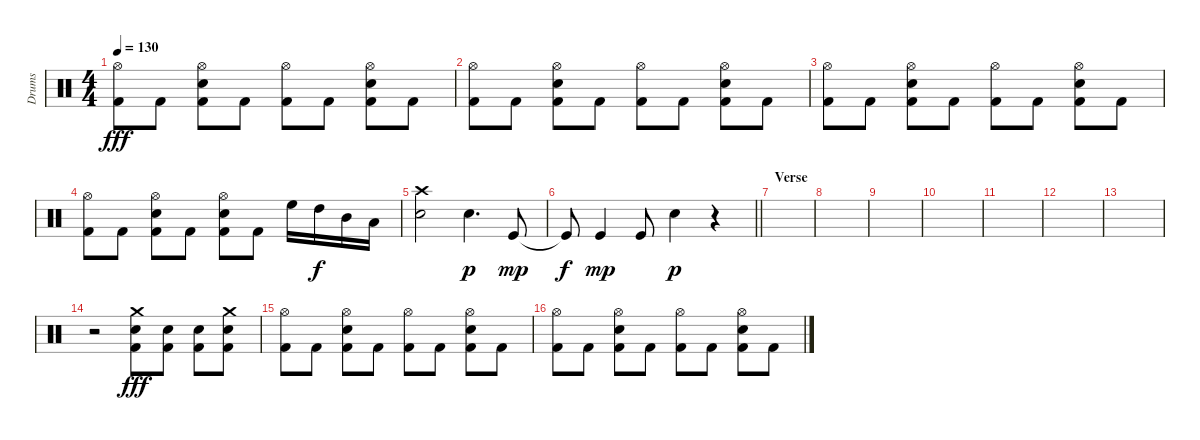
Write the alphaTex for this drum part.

\track ("Drums" "Drums") {instrument percussion}
\staff {score}
\articulation defaults
\ts (4 4)
\tempo 130
\clef neutral
\ks c
("Hi-Hat (open)" "Kick (hit) 2").8{dy fff} "Kick (hit) 2".8 ("Hi-Hat (open)" "Snare (hit) 2" "Kick (hit) 2").8 "Kick (hit) 2".8 ("Hi-Hat (open)" "Kick (hit) 2").8 "Kick (hit) 2".8 ("Hi-Hat (open)" "Snare (hit) 2" "Kick (hit) 2").8 "Kick (hit) 2".8 |
("Hi-Hat (open)" "Kick (hit) 2").8 "Kick (hit) 2".8 ("Hi-Hat (open)" "Snare (hit) 2" "Kick (hit) 2").8 "Kick (hit) 2".8 ("Hi-Hat (open)" "Kick (hit) 2").8 "Kick (hit) 2".8 ("Hi-Hat (open)" "Snare (hit) 2" "Kick (hit) 2").8 "Kick (hit) 2".8 |
("Hi-Hat (open)" "Kick (hit) 2").8 "Kick (hit) 2".8 ("Hi-Hat (open)" "Snare (hit) 2" "Kick (hit) 2").8 "Kick (hit) 2".8 ("Hi-Hat (open)" "Kick (hit) 2").8 "Kick (hit) 2".8 ("Hi-Hat (open)" "Snare (hit) 2" "Kick (hit) 2").8 "Kick (hit) 2".8 |
("Hi-Hat (open)" "Kick (hit) 2").8 "Kick (hit) 2".8 ("Hi-Hat (open)" "Snare (hit) 2" "Kick (hit) 2").8 "Kick (hit) 2".8 ("Hi-Hat (open)" "Snare (hit) 2" "Kick (hit) 2").8 "Kick (hit) 2".8 "High Floor Tom (hit)".16 "High Tom (hit)".16{dy f} "Mid Tom (hit)".16 "Low Tom (hit)".16 |
("Crash high (hit)" "Electric Snare (hit)").2 "Electric Snare (hit)".4{d dy p} "Kick (hit)".8{dy mp} |
\barLineRight lightlight "Kick (hit)"{t}.8{dy f} "Kick (hit)".4{dy mp} "Kick (hit)".8 "Electric Snare (hit)".4{dy p}
r.4 |
\section ("" "Verse")
|
|
|
|
|
|
|
r.2 ("Crash medium (hit)" "Snare (hit) 2" "Kick (hit) 2").8{dy fff} ("Electric Snare (hit)" "Kick (hit) 2").8 ("Electric Snare (hit)" "Kick (hit) 2").8 ("Crash medium (hit)" "Snare (hit) 2" "Kick (hit) 2").8 |
("Hi-Hat (open)" "Kick (hit) 2").8 "Kick (hit) 2".8 ("Hi-Hat (open)" "Snare (hit) 2" "Kick (hit) 2").8 "Kick (hit) 2".8 ("Hi-Hat (open)" "Kick (hit) 2").8 "Kick (hit) 2".8 ("Hi-Hat (open)" "Snare (hit) 2" "Kick (hit) 2").8 "Kick (hit) 2".8 |
("Hi-Hat (open)" "Kick (hit) 2").8 "Kick (hit) 2".8 ("Hi-Hat (open)" "Snare (hit) 2" "Kick (hit) 2").8 "Kick (hit) 2".8 ("Hi-Hat (open)" "Kick (hit) 2").8 "Kick (hit) 2".8 ("Hi-Hat (open)" "Snare (hit) 2" "Kick (hit) 2").8 "Kick (hit) 2".8
